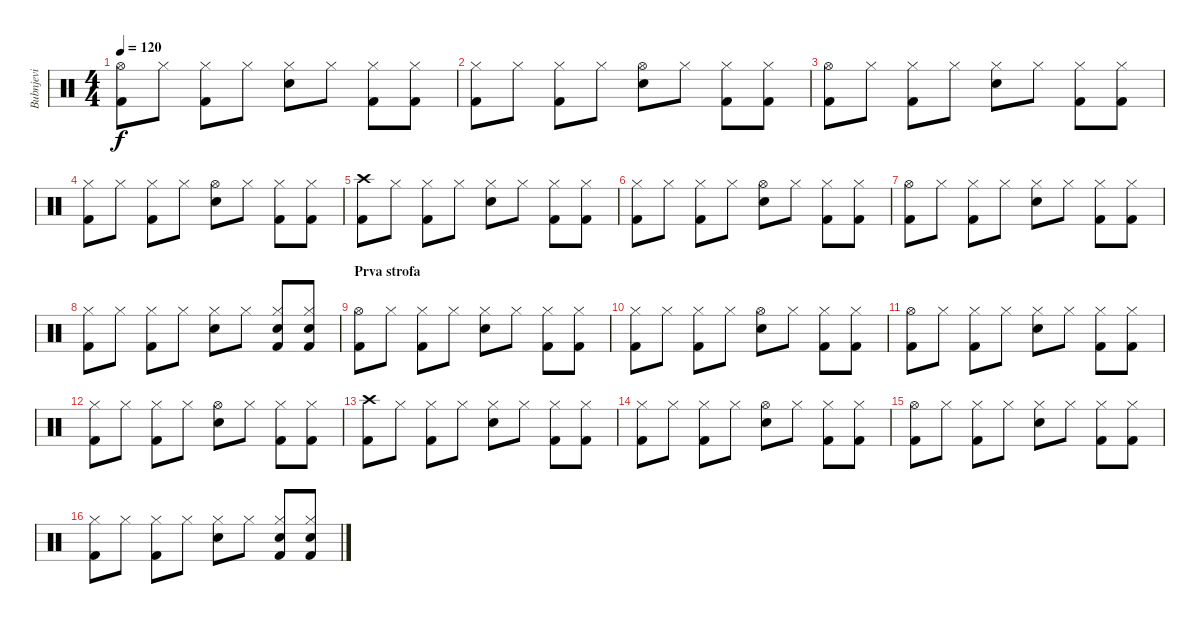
\track ("Bubnjevi" "Bubnjevi") {instrument percussion}
\staff {score}
\articulation defaults
\ts (4 4)
\tempo 120
\clef neutral
\ks c
("Hi-Hat (open)" "Kick (hit) 2").8{dy f} "Hi-Hat (closed)".8 ("Hi-Hat (closed)" "Kick (hit) 2").8 "Hi-Hat (closed)".8 ("Hi-Hat (closed)" "Snare (hit) 2").8 "Hi-Hat (closed)".8 ("Hi-Hat (closed)" "Kick (hit) 2").8 ("Hi-Hat (closed)" "Kick (hit) 2").8 |
("Hi-Hat (closed)" "Kick (hit) 2").8 "Hi-Hat (closed)".8 ("Hi-Hat (closed)" "Kick (hit) 2").8 "Hi-Hat (closed)".8 ("Hi-Hat (open)" "Snare (hit) 2").8 "Hi-Hat (closed)".8 ("Hi-Hat (closed)" "Kick (hit) 2").8 ("Hi-Hat (closed)" "Kick (hit) 2").8 |
("Hi-Hat (open)" "Kick (hit) 2").8 "Hi-Hat (closed)".8 ("Hi-Hat (closed)" "Kick (hit) 2").8 "Hi-Hat (closed)".8 ("Hi-Hat (closed)" "Snare (hit) 2").8 "Hi-Hat (closed)".8 ("Hi-Hat (closed)" "Kick (hit) 2").8 ("Hi-Hat (closed)" "Kick (hit) 2").8 |
("Hi-Hat (closed)" "Kick (hit) 2").8 "Hi-Hat (closed)".8 ("Hi-Hat (closed)" "Kick (hit) 2").8 "Hi-Hat (closed)".8 ("Hi-Hat (open)" "Snare (hit) 2").8 "Hi-Hat (closed)".8 ("Hi-Hat (closed)" "Kick (hit) 2").8 ("Hi-Hat (closed)" "Kick (hit) 2").8 |
("Crash high (hit)" "Kick (hit) 2").8 "Hi-Hat (closed)".8 ("Hi-Hat (closed)" "Kick (hit) 2").8 "Hi-Hat (closed)".8 ("Hi-Hat (closed)" "Snare (hit) 2").8 "Hi-Hat (closed)".8 ("Hi-Hat (closed)" "Kick (hit) 2").8 ("Hi-Hat (closed)" "Kick (hit) 2").8 |
("Hi-Hat (closed)" "Kick (hit) 2").8 "Hi-Hat (closed)".8 ("Hi-Hat (closed)" "Kick (hit) 2").8 "Hi-Hat (closed)".8 ("Hi-Hat (open)" "Snare (hit) 2").8 "Hi-Hat (closed)".8 ("Hi-Hat (closed)" "Kick (hit) 2").8 ("Hi-Hat (closed)" "Kick (hit) 2").8 |
("Hi-Hat (open)" "Kick (hit) 2").8 "Hi-Hat (closed)".8 ("Hi-Hat (closed)" "Kick (hit) 2").8 "Hi-Hat (closed)".8 ("Hi-Hat (closed)" "Snare (hit) 2").8 "Hi-Hat (closed)".8 ("Hi-Hat (closed)" "Kick (hit) 2").8 ("Hi-Hat (closed)" "Kick (hit) 2").8 |
("Hi-Hat (closed)" "Kick (hit) 2").8 "Hi-Hat (closed)".8 ("Hi-Hat (closed)" "Kick (hit) 2").8 "Hi-Hat (closed)".8 ("Hi-Hat (closed)" "Snare (hit) 2").8 "Hi-Hat (closed)".8 ("Hi-Hat (closed)" "Snare (hit) 2" "Kick (hit) 2").8 ("Hi-Hat (closed)" "Snare (hit) 2" "Kick (hit) 2").8 |
\section ("" "Prva strofa")
("Hi-Hat (open)" "Kick (hit) 2").8 "Hi-Hat (closed)".8 ("Hi-Hat (closed)" "Kick (hit) 2").8 "Hi-Hat (closed)".8 ("Hi-Hat (closed)" "Snare (hit) 2").8 "Hi-Hat (closed)".8 ("Hi-Hat (closed)" "Kick (hit) 2").8 ("Hi-Hat (closed)" "Kick (hit) 2").8 |
("Hi-Hat (closed)" "Kick (hit) 2").8 "Hi-Hat (closed)".8 ("Hi-Hat (closed)" "Kick (hit) 2").8 "Hi-Hat (closed)".8 ("Hi-Hat (open)" "Snare (hit) 2").8 "Hi-Hat (closed)".8 ("Hi-Hat (closed)" "Kick (hit) 2").8 ("Hi-Hat (closed)" "Kick (hit) 2").8 |
("Hi-Hat (open)" "Kick (hit) 2").8 "Hi-Hat (closed)".8 ("Hi-Hat (closed)" "Kick (hit) 2").8 "Hi-Hat (closed)".8 ("Hi-Hat (closed)" "Snare (hit) 2").8 "Hi-Hat (closed)".8 ("Hi-Hat (closed)" "Kick (hit) 2").8 ("Hi-Hat (closed)" "Kick (hit) 2").8 |
("Hi-Hat (closed)" "Kick (hit) 2").8 "Hi-Hat (closed)".8 ("Hi-Hat (closed)" "Kick (hit) 2").8 "Hi-Hat (closed)".8 ("Hi-Hat (open)" "Snare (hit) 2").8 "Hi-Hat (closed)".8 ("Hi-Hat (closed)" "Kick (hit) 2").8 ("Hi-Hat (closed)" "Kick (hit) 2").8 |
("Crash high (hit)" "Kick (hit) 2").8 "Hi-Hat (closed)".8 ("Hi-Hat (closed)" "Kick (hit) 2").8 "Hi-Hat (closed)".8 ("Hi-Hat (closed)" "Snare (hit) 2").8 "Hi-Hat (closed)".8 ("Hi-Hat (closed)" "Kick (hit) 2").8 ("Hi-Hat (closed)" "Kick (hit) 2").8 |
("Hi-Hat (closed)" "Kick (hit) 2").8 "Hi-Hat (closed)".8 ("Hi-Hat (closed)" "Kick (hit) 2").8 "Hi-Hat (closed)".8 ("Hi-Hat (open)" "Snare (hit) 2").8 "Hi-Hat (closed)".8 ("Hi-Hat (closed)" "Kick (hit) 2").8 ("Hi-Hat (closed)" "Kick (hit) 2").8 |
("Hi-Hat (open)" "Kick (hit) 2").8 "Hi-Hat (closed)".8 ("Hi-Hat (closed)" "Kick (hit) 2").8 "Hi-Hat (closed)".8 ("Hi-Hat (closed)" "Snare (hit) 2").8 "Hi-Hat (closed)".8 ("Hi-Hat (closed)" "Kick (hit) 2").8 ("Hi-Hat (closed)" "Kick (hit) 2").8 |
("Hi-Hat (closed)" "Kick (hit) 2").8 "Hi-Hat (closed)".8 ("Hi-Hat (closed)" "Kick (hit) 2").8 "Hi-Hat (closed)".8 ("Hi-Hat (closed)" "Snare (hit) 2").8 "Hi-Hat (closed)".8 ("Hi-Hat (closed)" "Snare (hit) 2" "Kick (hit) 2").8 ("Hi-Hat (closed)" "Snare (hit) 2" "Kick (hit) 2").8
